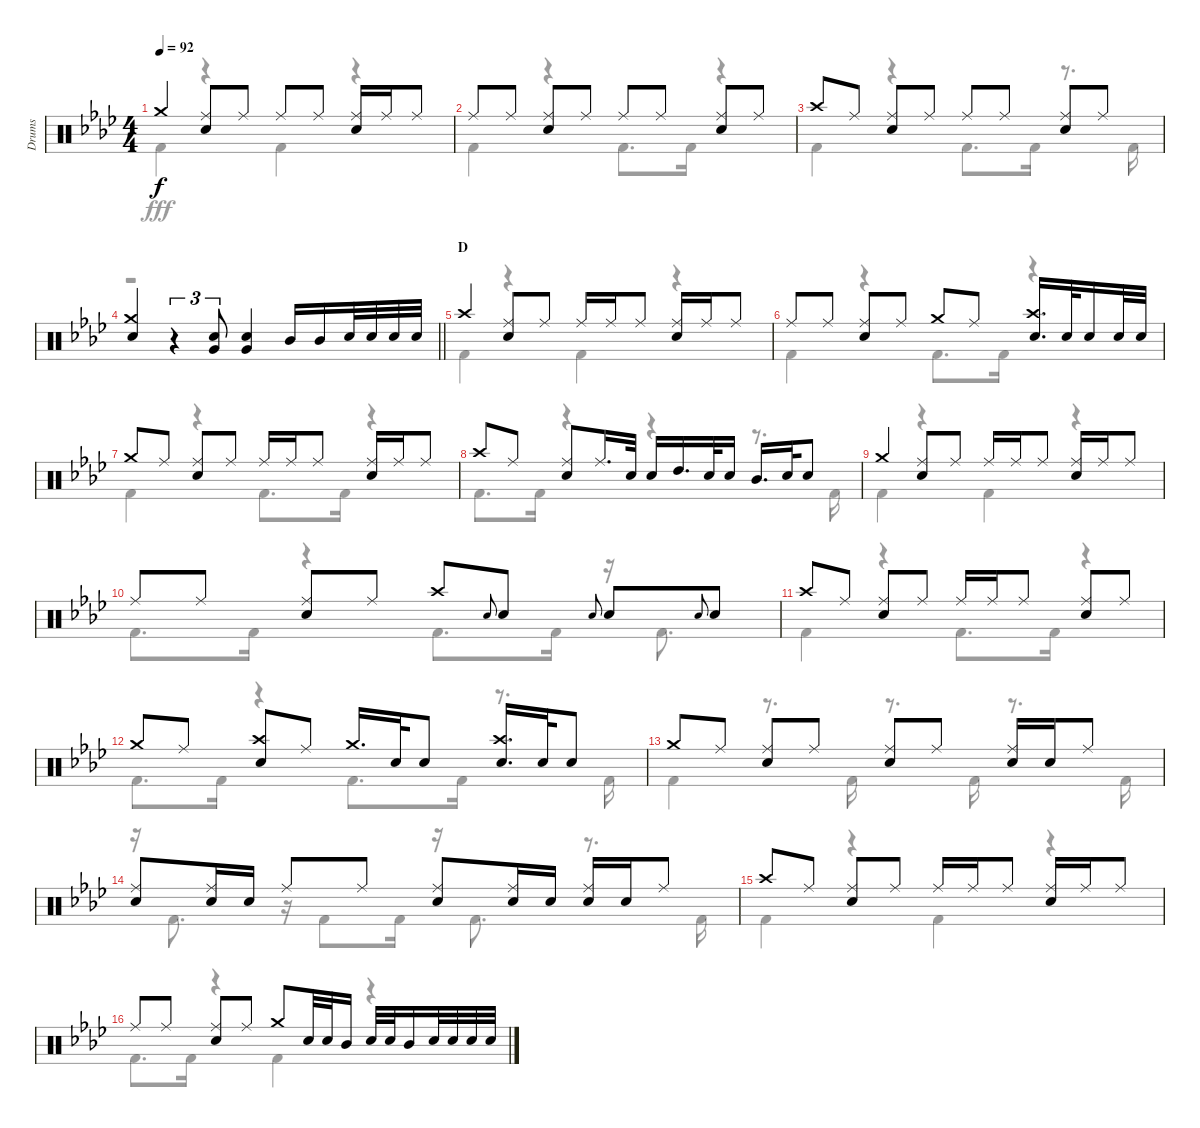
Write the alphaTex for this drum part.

\track ("Drums" "Drums") {instrument percussion}
\staff {score}
\articulation defaults
\voice
\ts (4 4)
\tempo 92
\clef neutral
\ks ab "Crash medium (hit)".4{dy f}
("Ride (middle)" "Snare (hit) 2").8 "Ride (middle)".8 "Ride (middle)".8 "Ride (middle)".8 ("Ride (middle)" "Snare (hit) 2").16 "Ride (middle)".16 "Ride (middle)".8 |
"Ride (middle)".8 "Ride (middle)".8 ("Ride (middle)" "Snare (hit) 2").8 "Ride (middle)".8 "Ride (middle)".8 "Ride (middle)".8 ("Ride (middle)" "Snare (hit) 2").8 "Ride (middle)".8 |
"Crash high (hit)".8 "Ride (middle)".8 ("Ride (middle)" "Snare (hit) 2").8 "Ride (middle)".8 "Ride (middle)".8 "Ride (middle)".8 ("Ride (middle)" "Snare (hit) 2").8 "Ride (middle)".8 |
\barLineRight lightlight
("Crash medium (hit)" "Snare (hit) 2").4 r.4{tu (3 2)} ("Snare (hit) 2" "Very Low Tom (hit)").8{tu (3 2)} ("Snare (hit) 2" "Very Low Tom (hit)").4 "Mid Tom (hit)".16 "Mid Tom (hit)".16 "Snare (hit) 2".32 "Snare (hit) 2".32 "Snare (hit) 2".32 "Snare (hit) 2".32 |
\section ("" "D")
"Crash high (hit)".4 ("Ride (middle)" "Snare (hit) 2").8 "Ride (middle)".8 "Ride (middle)".16 "Ride (middle)".16 "Ride (middle)".8 ("Ride (middle)" "Snare (hit) 2").16 "Ride (middle)".16 "Ride (middle)".8 |
"Ride (middle)".8 "Ride (middle)".8 ("Ride (middle)" "Snare (hit) 2").8 "Ride (middle)".8 "Crash medium (hit)".8 "Ride (middle)".8 ("Crash high (hit)" "Snare (hit) 2").16{d} "Snare (hit) 2".32 "Snare (hit) 2".16 "Snare (hit) 2".32 "Snare (hit) 2".32 |
"Crash medium (hit)".8 "Ride (middle)".8 ("Ride (middle)" "Snare (hit) 2").8 "Ride (middle)".8 "Ride (middle)".16 "Ride (middle)".16 "Ride (middle)".8 ("Ride (middle)" "Snare (hit) 2").16 "Ride (middle)".16 "Ride (middle)".8 |
"Crash high (hit)".8 "Ride (middle)".8 ("Ride (middle)" "Snare (hit) 2").8 "Ride (middle)".16{d} "Snare (hit) 2".32 "Snare (hit) 2".16 "High Tom (hit)".16{d} "Snare (hit) 2".32 "Snare (hit) 2".16 "Mid Tom (hit)".16{d} "Snare (hit) 2".32 "Snare (hit) 2".8 |
"Crash medium (hit)".4 ("Ride (middle)" "Snare (hit) 2").8 "Ride (middle)".8 "Ride (middle)".16 "Ride (middle)".16 "Ride (middle)".8 ("Ride (middle)" "Snare (hit) 2").16 "Ride (middle)".16 "Ride (middle)".8 |
"Ride (middle)".8 "Ride (middle)".8 ("Ride (middle)" "Snare (hit) 2").8 "Ride (middle)".8 "Crash high (hit)".8 "Snare (hit) 2".8{gr onbeat} "Snare (hit) 2".8 "Snare (hit) 2".8{gr onbeat} "Snare (hit) 2".8 "Snare (hit) 2".8{gr onbeat} "Snare (hit) 2".8 |
"Crash high (hit)".8 "Ride (middle)".8 ("Ride (middle)" "Snare (hit) 2").8 "Ride (middle)".8 "Ride (middle)".16 "Ride (middle)".16 "Ride (middle)".8 ("Ride (middle)" "Snare (hit) 2").8 "Ride (middle)".8 |
"Crash medium (hit)".8 "Ride (middle)".8 ("Crash high (hit)" "Snare (hit) 2").8 "Ride (middle)".8 "Crash medium (hit)".16{d} "Snare (hit) 2".32 "Snare (hit) 2".8 ("Crash high (hit)" "Snare (hit) 2").16{d} "Snare (hit) 2".32 "Snare (hit) 2".8 |
"Crash medium (hit)".8 "Ride (middle)".8 ("Ride (middle)" "Snare (hit) 2").8 "Ride (middle)".8 ("Ride (middle)" "Snare (hit) 2").8 "Ride (middle)".8 ("Ride (middle)" "Snare (hit) 2").16 "Snare (hit) 2".16 "Ride (middle)".8 |
("Ride (middle)" "Snare (hit) 2").8 ("Ride (middle)" "Snare (hit) 2").16 "Snare (hit) 2".16 "Ride (middle)".8 "Ride (middle)".8 ("Ride (middle)" "Snare (hit) 2").8 ("Ride (middle)" "Snare (hit) 2").16 "Snare (hit) 2".16 ("Ride (middle)" "Snare (hit) 2").16 "Snare (hit) 2".16 "Ride (middle)".8 |
"Crash high (hit)".8 "Ride (middle)".8 ("Ride (middle)" "Snare (hit) 2").8 "Ride (middle)".8 "Ride (middle)".16 "Ride (middle)".16 "Ride (middle)".8 ("Ride (middle)" "Snare (hit) 2").16 "Ride (middle)".16 "Ride (middle)".8 |
"Ride (middle)".8 "Ride (middle)".8 ("Ride (middle)" "Snare (hit) 2").8 "Ride (middle)".8 "Crash medium (hit)".8 "Snare (hit) 2".32 "Snare (hit) 2".32 "Mid Tom (hit)".16 "Snare (hit) 2".32 "Snare (hit) 2".32 "Mid Tom (hit)".16 "Snare (hit) 2".32 "Snare (hit) 2".32 "Snare (hit) 2".32 "Snare (hit) 2".32
\voice
\clef neutral
\ottava regular
\simile none
\ks ab "Kick (hit) 2".4{dy fff}
r.4 "Kick (hit) 2".4 r.4 |
"Kick (hit) 2".4 r.4 "Kick (hit) 2".8{d} "Kick (hit) 2".16 r.4 |
"Kick (hit) 2".4 r.4 "Kick (hit) 2".8{d} "Kick (hit) 2".16 r.8{d} "Kick (hit) 2".16 |
\barLineRight lightlight
r.1 |
"Kick (hit) 2".4 r.4 "Kick (hit) 2".4 r.4 |
"Kick (hit) 2".4 r.4 "Kick (hit) 2".8{d} "Kick (hit) 2".16 r.4 |
"Kick (hit) 2".4 r.4 "Kick (hit) 2".8{d} "Kick (hit) 2".16 r.4 |
"Kick (hit) 2".8{d} "Kick (hit) 2".16 r.4 r.4 r.8{d} "Kick (hit) 2".16 |
"Kick (hit) 2".4 r.4 "Kick (hit) 2".4 r.4 |
"Kick (hit) 2".8{d} "Kick (hit) 2".16 r.4 "Kick (hit) 2".8{d} "Kick (hit) 2".16 r.16 "Kick (hit) 2".8{d} |
"Kick (hit) 2".4 r.4 "Kick (hit) 2".8{d} "Kick (hit) 2".16 r.4 |
"Kick (hit) 2".8{d} "Kick (hit) 2".16 r.4 "Kick (hit) 2".8{d} "Kick (hit) 2".16 r.8{d} "Kick (hit) 2".16 |
"Kick (hit) 2".4 r.8{d} "Kick (hit) 2".16 r.8{d} "Kick (hit) 2".16 r.8{d} "Kick (hit) 2".16 |
r.16 "Kick (hit) 2".8{d} r.16 "Kick (hit) 2".8 "Kick (hit) 2".16 r.16 "Kick (hit) 2".8{d} r.8{d} "Kick (hit) 2".16 |
"Kick (hit) 2".4 r.4 "Kick (hit) 2".4 r.4 |
"Kick (hit) 2".8{d} "Kick (hit) 2".16 r.4 "Kick (hit) 2".4 r.4
